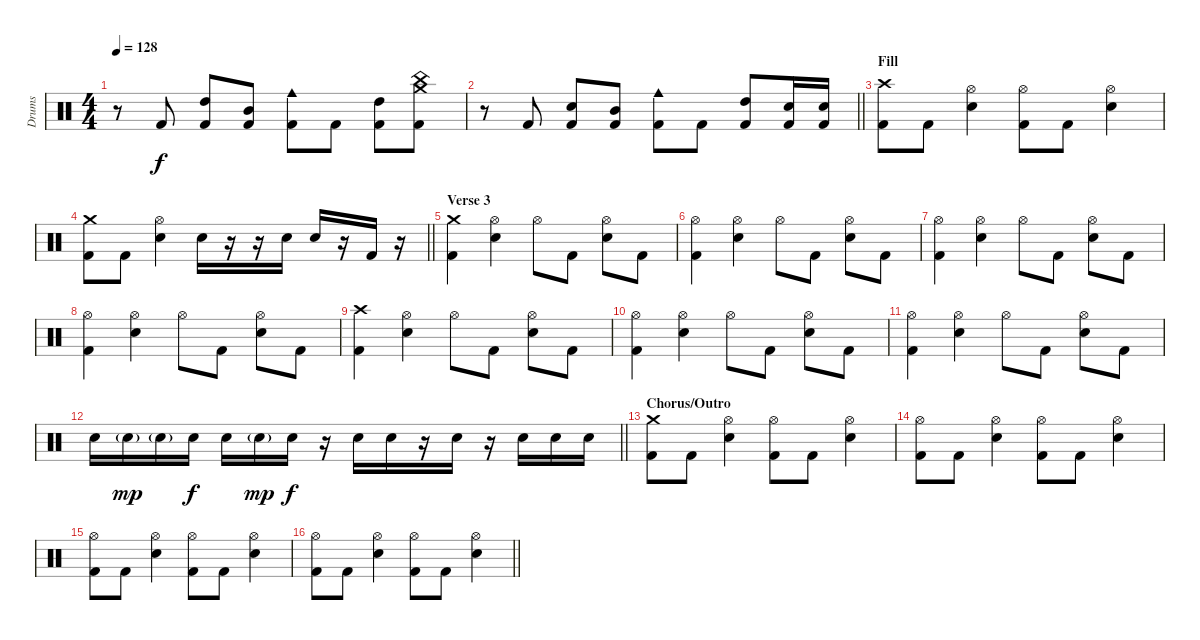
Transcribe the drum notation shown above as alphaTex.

\track ("Drums" "Drums") {instrument percussion}
\staff {score}
\articulation defaults
\ts (4 4)
\tempo 128
\clef neutral
\ks c
r.8{dy f} "Kick (hit) 2".8 ("High Tom (hit)" "Kick (hit) 2").8 ("Mid Tom (hit)" "Kick (hit) 2").8 ("Cowbell medium (hit)" "Kick (hit) 2").8 "Kick (hit) 2".8 ("High Tom (hit)" "Kick (hit) 2").8 ("China (hit)" "Crash medium (hit)" "Kick (hit) 2").8 |
\barLineRight lightlight
r.8 "Kick (hit) 2".8 ("Electric Snare (hit)" "Kick (hit) 2").8 ("Mid Tom (hit)" "Kick (hit) 2").8 ("Cowbell medium (hit)" "Kick (hit) 2").8 "Kick (hit) 2".8 ("High Tom (hit)" "Kick (hit) 2").8 ("Electric Snare (hit)" "Kick (hit) 2").16 ("Electric Snare (hit)" "Kick (hit) 2").16 |
\section ("" "Fill")
("Crash high (hit)" "Kick (hit) 2").8 "Kick (hit) 2".8 ("Hi-Hat (open)" "Electric Snare (hit)").4 ("Hi-Hat (open)" "Kick (hit) 2").8 "Kick (hit) 2".8 ("Hi-Hat (open)" "Electric Snare (hit)").4 |
\barLineRight lightlight
("Crash medium (hit)" "Kick (hit) 2").8 "Kick (hit) 2".8 ("Hi-Hat (open)" "Electric Snare (hit)").4 "Electric Snare (hit)".16 r.16 r.16 "Electric Snare (hit)".16 "Electric Snare (hit)".16 r.16 "Kick (hit) 2".16 r.16 |
\section ("" "Verse 3")
("Crash medium (hit)" "Kick (hit) 2").4 ("Hi-Hat (open)" "Electric Snare (hit)").4 "Hi-Hat (open)".8 "Kick (hit) 2".8 ("Hi-Hat (open)" "Electric Snare (hit)").8 "Kick (hit) 2".8 |
("Hi-Hat (open)" "Kick (hit) 2").4 ("Hi-Hat (open)" "Electric Snare (hit)").4 "Hi-Hat (open)".8 "Kick (hit) 2".8 ("Hi-Hat (open)" "Electric Snare (hit)").8 "Kick (hit) 2".8 |
("Hi-Hat (open)" "Kick (hit) 2").4 ("Hi-Hat (open)" "Electric Snare (hit)").4 "Hi-Hat (open)".8 "Kick (hit) 2".8 ("Hi-Hat (open)" "Electric Snare (hit)").8 "Kick (hit) 2".8 |
("Hi-Hat (open)" "Kick (hit) 2").4 ("Hi-Hat (open)" "Electric Snare (hit)").4 "Hi-Hat (open)".8 "Kick (hit) 2".8 ("Hi-Hat (open)" "Electric Snare (hit)").8 "Kick (hit) 2".8 |
("Crash high (hit)" "Kick (hit) 2").4 ("Hi-Hat (open)" "Electric Snare (hit)").4 "Hi-Hat (open)".8 "Kick (hit) 2".8 ("Hi-Hat (open)" "Electric Snare (hit)").8 "Kick (hit) 2".8 |
("Hi-Hat (open)" "Kick (hit) 2").4 ("Hi-Hat (open)" "Electric Snare (hit)").4 "Hi-Hat (open)".8 "Kick (hit) 2".8 ("Hi-Hat (open)" "Electric Snare (hit)").8 "Kick (hit) 2".8 |
("Hi-Hat (open)" "Kick (hit) 2").4 ("Hi-Hat (open)" "Electric Snare (hit)").4 "Hi-Hat (open)".8 "Kick (hit) 2".8 ("Hi-Hat (open)" "Electric Snare (hit)").8 "Kick (hit) 2".8 |
\barLineRight lightlight "Electric Snare (hit)".16 "Electric Snare (hit)"{g}.16{dy mp} "Electric Snare (hit)"{g}.16 "Electric Snare (hit)".16{dy f} "Electric Snare (hit)".16 "Electric Snare (hit)"{g}.16{dy mp} "Electric Snare (hit)".16{dy f}
r.16 "Electric Snare (hit)".16 "Electric Snare (hit)".16 r.16 "Electric Snare (hit)".16 r.16 "Electric Snare (hit)".16 "Electric Snare (hit)".16 "Electric Snare (hit)".16 |
\section ("" "Chorus/Outro")
("Crash medium (hit)" "Kick (hit) 2").8 "Kick (hit) 2".8 ("Hi-Hat (open)" "Electric Snare (hit)").4 ("Hi-Hat (open)" "Kick (hit) 2").8 "Kick (hit) 2".8 ("Hi-Hat (open)" "Electric Snare (hit)").4 |
("Hi-Hat (open)" "Kick (hit) 2").8 "Kick (hit) 2".8 ("Hi-Hat (open)" "Electric Snare (hit)").4 ("Hi-Hat (open)" "Kick (hit) 2").8 "Kick (hit) 2".8 ("Hi-Hat (open)" "Electric Snare (hit)").4 |
("Hi-Hat (open)" "Kick (hit) 2").8 "Kick (hit) 2".8 ("Hi-Hat (open)" "Electric Snare (hit)").4 ("Hi-Hat (open)" "Kick (hit) 2").8 "Kick (hit) 2".8 ("Hi-Hat (open)" "Electric Snare (hit)").4 |
\barLineRight lightlight
("Hi-Hat (open)" "Kick (hit) 2").8 "Kick (hit) 2".8 ("Hi-Hat (open)" "Electric Snare (hit)").4 ("Hi-Hat (open)" "Kick (hit) 2").8 "Kick (hit) 2".8 ("Hi-Hat (open)" "Electric Snare (hit)").4
